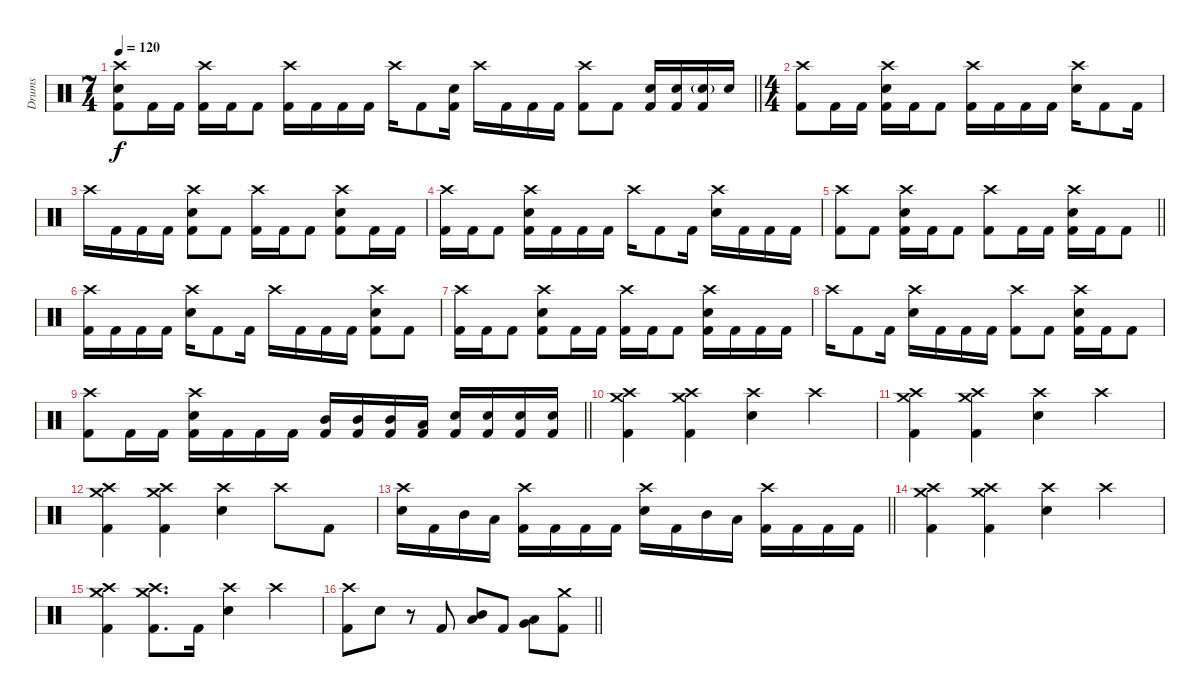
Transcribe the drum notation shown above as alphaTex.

\track ("Drums" "Drums") {instrument percussion}
\staff {score}
\articulation defaults
\ts (7 4)
\tempo 120
\clef neutral
\barLineRight lightlight
\ks c
("Crash high (hit)" "Electric Snare (hit)" "Kick (hit) 2").8{dy f} "Kick (hit) 2".16 "Kick (hit) 2".16 ("Crash high (hit)" "Kick (hit) 2").16 "Kick (hit) 2".16 "Kick (hit) 2".8 ("Crash high (hit)" "Kick (hit) 2").16 "Kick (hit) 2".16 "Kick (hit) 2".16 "Kick (hit) 2".16 "Crash high (hit)".16 "Kick (hit) 2".8 ("Electric Snare (hit)" "Kick (hit) 2").16 "Crash high (hit)".16 "Kick (hit) 2".16 "Kick (hit) 2".16 "Kick (hit) 2".16 ("Crash high (hit)" "Kick (hit) 2").8 "Kick (hit) 2".8 ("Electric Snare (hit)" "Kick (hit) 2").16 ("Electric Snare (hit)" "Kick (hit) 2").16 ("Electric Snare (hit)"{g} "Kick (hit) 2").16 "Electric Snare (hit)".16 |
\ts (4 4)
\section ("" "")
("Crash high (hit)" "Kick (hit) 2").8 "Kick (hit) 2".16 "Kick (hit) 2".16 ("Crash high (hit)" "Electric Snare (hit)" "Kick (hit) 2").16 "Kick (hit) 2".16 "Kick (hit) 2".8 ("Crash high (hit)" "Kick (hit) 2").16 "Kick (hit) 2".16 "Kick (hit) 2".16 "Kick (hit) 2".16 ("Crash high (hit)" "Electric Snare (hit)").16 "Kick (hit) 2".8 "Kick (hit) 2".16 |
"Crash high (hit)".16 "Kick (hit) 2".16 "Kick (hit) 2".16 "Kick (hit) 2".16 ("Crash high (hit)" "Electric Snare (hit)" "Kick (hit) 2").8 "Kick (hit) 2".8 ("Crash high (hit)" "Kick (hit) 2").16 "Kick (hit) 2".16 "Kick (hit) 2".8 ("Crash high (hit)" "Electric Snare (hit)" "Kick (hit) 2").8 "Kick (hit) 2".16 "Kick (hit) 2".16 |
("Crash high (hit)" "Kick (hit) 2").16 "Kick (hit) 2".16 "Kick (hit) 2".8 ("Crash high (hit)" "Electric Snare (hit)" "Kick (hit) 2").16 "Kick (hit) 2".16 "Kick (hit) 2".16 "Kick (hit) 2".16 "Crash high (hit)".16 "Kick (hit) 2".8 "Kick (hit) 2".16 ("Crash high (hit)" "Electric Snare (hit)").16 "Kick (hit) 2".16 "Kick (hit) 2".16 "Kick (hit) 2".16 |
\barLineRight lightlight
("Crash high (hit)" "Kick (hit) 2").8 "Kick (hit) 2".8 ("Crash high (hit)" "Electric Snare (hit)" "Kick (hit) 2").16 "Kick (hit) 2".16 "Kick (hit) 2".8 ("Crash high (hit)" "Kick (hit) 2").8 "Kick (hit) 2".16 "Kick (hit) 2".16 ("Crash high (hit)" "Electric Snare (hit)" "Kick (hit) 2").16 "Kick (hit) 2".16 "Kick (hit) 2".8 |
("Crash high (hit)" "Kick (hit) 2").16 "Kick (hit) 2".16 "Kick (hit) 2".16 "Kick (hit) 2".16 ("Crash high (hit)" "Electric Snare (hit)").16 "Kick (hit) 2".8 "Kick (hit) 2".16 "Crash high (hit)".16 "Kick (hit) 2".16 "Kick (hit) 2".16 "Kick (hit) 2".16 ("Crash high (hit)" "Electric Snare (hit)" "Kick (hit) 2").8 "Kick (hit) 2".8 |
("Crash high (hit)" "Kick (hit) 2").16 "Kick (hit) 2".16 "Kick (hit) 2".8 ("Crash high (hit)" "Electric Snare (hit)" "Kick (hit) 2").8 "Kick (hit) 2".16 "Kick (hit) 2".16 ("Crash high (hit)" "Kick (hit) 2").16 "Kick (hit) 2".16 "Kick (hit) 2".8 ("Crash high (hit)" "Electric Snare (hit)" "Kick (hit) 2").16 "Kick (hit) 2".16 "Kick (hit) 2".16 "Kick (hit) 2".16 |
"Crash high (hit)".16 "Kick (hit) 2".8 "Kick (hit) 2".16 ("Crash high (hit)" "Electric Snare (hit)").16 "Kick (hit) 2".16 "Kick (hit) 2".16 "Kick (hit) 2".16 ("Crash high (hit)" "Kick (hit) 2").8 "Kick (hit) 2".8 ("Crash high (hit)" "Electric Snare (hit)" "Kick (hit) 2").16 "Kick (hit) 2".16 "Kick (hit) 2".8 |
\barLineRight lightlight
("Crash high (hit)" "Kick (hit) 2").8 "Kick (hit) 2".16 "Kick (hit) 2".16 ("Crash high (hit)" "Electric Snare (hit)" "Kick (hit) 2").16 "Kick (hit) 2".16 "Kick (hit) 2".16 "Kick (hit) 2".16 ("Mid Tom (hit)" "Kick (hit) 2").16 ("Mid Tom (hit)" "Kick (hit) 2").16 ("Mid Tom (hit)" "Kick (hit) 2").16 ("Low Tom (hit)" "Kick (hit) 2").16 ("Electric Snare (hit)" "Kick (hit) 2").16 ("Electric Snare (hit)" "Kick (hit) 2").16 ("Electric Snare (hit)" "Kick (hit) 2").16 ("Electric Snare (hit)" "Kick (hit) 2").16 |
\section ("" "")
("Crash high (hit)" "Crash medium (hit)" "Kick (hit) 2").4 ("Crash high (hit)" "Crash medium (hit)" "Kick (hit) 2").4 ("Crash high (hit)" "Electric Snare (hit)").4 "Crash high (hit)".4 |
("Crash high (hit)" "Crash medium (hit)" "Kick (hit) 2").4 ("Crash high (hit)" "Crash medium (hit)" "Kick (hit) 2").4 ("Crash high (hit)" "Electric Snare (hit)").4 "Crash high (hit)".4 |
("Crash high (hit)" "Crash medium (hit)" "Kick (hit) 2").4 ("Crash high (hit)" "Crash medium (hit)" "Kick (hit) 2").4 ("Crash high (hit)" "Electric Snare (hit)").4 "Crash high (hit)".8 "Kick (hit) 2".8 |
\barLineRight lightlight
("Crash high (hit)" "Electric Snare (hit)").16 "Kick (hit) 2".16 "Mid Tom (hit)".16 "Low Tom (hit)".16 ("Crash high (hit)" "Kick (hit) 2").16 "Kick (hit) 2".16 "Kick (hit) 2".16 "Kick (hit) 2".16 ("Crash high (hit)" "Electric Snare (hit)").16 "Kick (hit) 2".16 "Mid Tom (hit)".16 "Low Tom (hit)".16 ("Crash high (hit)" "Kick (hit) 2").16 "Kick (hit) 2".16 "Kick (hit) 2".16 "Kick (hit) 2".16 |
("Crash high (hit)" "Crash medium (hit)" "Kick (hit) 2").4 ("Crash high (hit)" "Crash medium (hit)" "Kick (hit) 2").4 ("Crash high (hit)" "Electric Snare (hit)").4 "Crash high (hit)".4 |
("Crash high (hit)" "Crash medium (hit)" "Kick (hit) 2").4 ("Crash high (hit)" "Crash medium (hit)" "Kick (hit) 2").8{d} "Kick (hit) 2".16 ("Crash high (hit)" "Electric Snare (hit)").4 "Crash high (hit)".4 |
\barLineRight lightlight
("Crash high (hit)" "Kick (hit) 2").8 "Electric Snare (hit)".8 r.8 "Kick (hit) 2".8 ("Mid Tom (hit)" "Low Tom (hit)").8 "Kick (hit) 2".8 ("Low Tom (hit)" "Very Low Tom (hit)").8 ("Crash medium (hit)" "Kick (hit) 2").8
